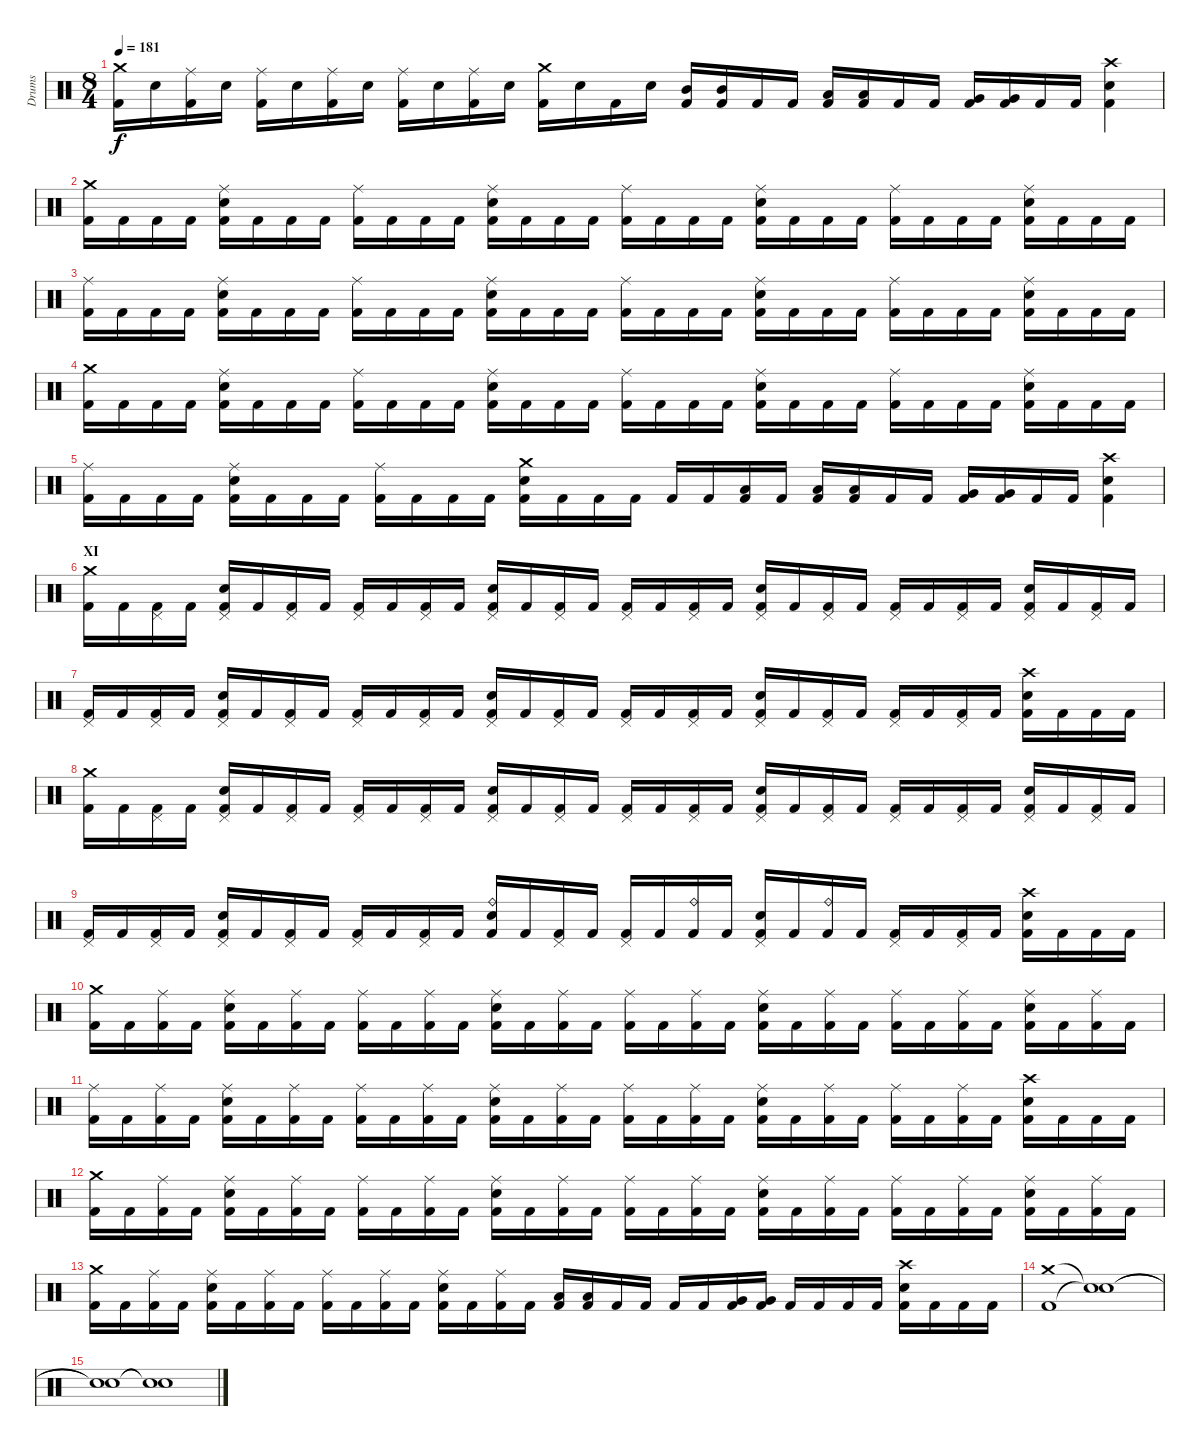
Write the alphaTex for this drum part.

\track ("Drums" "Drums") {instrument percussion}
\staff {score}
\articulation defaults
\ts (8 4)
\tempo 181
\clef neutral
\ks c
("Crash medium (hit)" "Kick (hit) 2").16{dy f} "Electric Snare (hit)".16 ("Ride (middle)" "Kick (hit) 2").16 "Electric Snare (hit)".16 ("Ride (middle)" "Kick (hit) 2").16 "Electric Snare (hit)".16 ("Ride (middle)" "Kick (hit) 2").16 "Electric Snare (hit)".16 ("Ride (middle)" "Kick (hit) 2").16 "Electric Snare (hit)".16 ("Ride (middle)" "Kick (hit) 2").16 "Electric Snare (hit)".16 ("Crash medium (hit)" "Kick (hit) 2").16 "Electric Snare (hit)".16 "Kick (hit) 2".16 "Electric Snare (hit)".16 ("Mid Tom (hit)" "Kick (hit) 2").16 ("Mid Tom (hit)" "Kick (hit) 2").16 "Kick (hit) 2".16 "Kick (hit) 2".16 ("Low Tom (hit)" "Kick (hit) 2").16 ("Low Tom (hit)" "Kick (hit) 2").16 "Kick (hit) 2".16 "Kick (hit) 2".16 ("Very Low Tom (hit)" "Kick (hit) 2").16 ("Very Low Tom (hit)" "Kick (hit) 2").16 "Kick (hit) 2".16 "Kick (hit) 2".16 ("Crash high (hit)" "Electric Snare (hit)" "Kick (hit) 2").4 |
("Crash medium (hit)" "Kick (hit) 2").16 "Kick (hit) 2".16 "Kick (hit) 2".16 "Kick (hit) 2".16 ("Ride (middle)" "Electric Snare (hit)" "Kick (hit) 2").16 "Kick (hit) 2".16 "Kick (hit) 2".16 "Kick (hit) 2".16 ("Ride (middle)" "Kick (hit) 2").16 "Kick (hit) 2".16 "Kick (hit) 2".16 "Kick (hit) 2".16 ("Ride (middle)" "Electric Snare (hit)" "Kick (hit) 2").16 "Kick (hit) 2".16 "Kick (hit) 2".16 "Kick (hit) 2".16 ("Ride (middle)" "Kick (hit) 2").16 "Kick (hit) 2".16 "Kick (hit) 2".16 "Kick (hit) 2".16 ("Ride (middle)" "Electric Snare (hit)" "Kick (hit) 2").16 "Kick (hit) 2".16 "Kick (hit) 2".16 "Kick (hit) 2".16 ("Ride (middle)" "Kick (hit) 2").16 "Kick (hit) 2".16 "Kick (hit) 2".16 "Kick (hit) 2".16 ("Ride (middle)" "Electric Snare (hit)" "Kick (hit) 2").16 "Kick (hit) 2".16 "Kick (hit) 2".16 "Kick (hit) 2".16 |
("Ride (middle)" "Kick (hit) 2").16 "Kick (hit) 2".16 "Kick (hit) 2".16 "Kick (hit) 2".16 ("Ride (middle)" "Electric Snare (hit)" "Kick (hit) 2").16 "Kick (hit) 2".16 "Kick (hit) 2".16 "Kick (hit) 2".16 ("Ride (middle)" "Kick (hit) 2").16 "Kick (hit) 2".16 "Kick (hit) 2".16 "Kick (hit) 2".16 ("Ride (middle)" "Electric Snare (hit)" "Kick (hit) 2").16 "Kick (hit) 2".16 "Kick (hit) 2".16 "Kick (hit) 2".16 ("Ride (middle)" "Kick (hit) 2").16 "Kick (hit) 2".16 "Kick (hit) 2".16 "Kick (hit) 2".16 ("Ride (middle)" "Electric Snare (hit)" "Kick (hit) 2").16 "Kick (hit) 2".16 "Kick (hit) 2".16 "Kick (hit) 2".16 ("Ride (middle)" "Kick (hit) 2").16 "Kick (hit) 2".16 "Kick (hit) 2".16 "Kick (hit) 2".16 ("Ride (middle)" "Electric Snare (hit)" "Kick (hit) 2").16 "Kick (hit) 2".16 "Kick (hit) 2".16 "Kick (hit) 2".16 |
("Crash medium (hit)" "Kick (hit) 2").16 "Kick (hit) 2".16 "Kick (hit) 2".16 "Kick (hit) 2".16 ("Ride (middle)" "Electric Snare (hit)" "Kick (hit) 2").16 "Kick (hit) 2".16 "Kick (hit) 2".16 "Kick (hit) 2".16 ("Ride (middle)" "Kick (hit) 2").16 "Kick (hit) 2".16 "Kick (hit) 2".16 "Kick (hit) 2".16 ("Ride (middle)" "Electric Snare (hit)" "Kick (hit) 2").16 "Kick (hit) 2".16 "Kick (hit) 2".16 "Kick (hit) 2".16 ("Ride (middle)" "Kick (hit) 2").16 "Kick (hit) 2".16 "Kick (hit) 2".16 "Kick (hit) 2".16 ("Ride (middle)" "Electric Snare (hit)" "Kick (hit) 2").16 "Kick (hit) 2".16 "Kick (hit) 2".16 "Kick (hit) 2".16 ("Ride (middle)" "Kick (hit) 2").16 "Kick (hit) 2".16 "Kick (hit) 2".16 "Kick (hit) 2".16 ("Ride (middle)" "Electric Snare (hit)" "Kick (hit) 2").16 "Kick (hit) 2".16 "Kick (hit) 2".16 "Kick (hit) 2".16 |
("Ride (middle)" "Kick (hit) 2").16 "Kick (hit) 2".16 "Kick (hit) 2".16 "Kick (hit) 2".16 ("Ride (middle)" "Electric Snare (hit)" "Kick (hit) 2").16 "Kick (hit) 2".16 "Kick (hit) 2".16 "Kick (hit) 2".16 ("Ride (middle)" "Kick (hit) 2").16 "Kick (hit) 2".16 "Kick (hit) 2".16 "Kick (hit) 2".16 ("Crash medium (hit)" "Electric Snare (hit)" "Kick (hit) 2").16 "Kick (hit) 2".16 "Kick (hit) 2".16 "Kick (hit) 2".16 "Kick (hit) 2".16 "Kick (hit) 2".16 ("Low Tom (hit)" "Kick (hit) 2").16 "Kick (hit) 2".16 ("Low Tom (hit)" "Kick (hit) 2").16 ("Low Tom (hit)" "Kick (hit) 2").16 "Kick (hit) 2".16 "Kick (hit) 2".16 ("Very Low Tom (hit)" "Kick (hit) 2").16 ("Very Low Tom (hit)" "Kick (hit) 2").16 "Kick (hit) 2".16 "Kick (hit) 2".16 ("Crash high (hit)" "Electric Snare (hit)" "Kick (hit) 2").4 |
\section ("" "XI")
("Crash medium (hit)" "Kick (hit) 2").16 "Kick (hit) 2".16 ("Pedal Hi-Hat (hit)" "Kick (hit) 2").16 "Kick (hit) 2".16 ("Pedal Hi-Hat (hit)" "Electric Snare (hit)" "Kick (hit) 2").16 "Kick (hit) 2".16 ("Pedal Hi-Hat (hit)" "Kick (hit) 2").16 "Kick (hit) 2".16 ("Pedal Hi-Hat (hit)" "Kick (hit) 2").16 "Kick (hit) 2".16 ("Pedal Hi-Hat (hit)" "Kick (hit) 2").16 "Kick (hit) 2".16 ("Pedal Hi-Hat (hit)" "Electric Snare (hit)" "Kick (hit) 2").16 "Kick (hit) 2".16 ("Pedal Hi-Hat (hit)" "Kick (hit) 2").16 "Kick (hit) 2".16 ("Pedal Hi-Hat (hit)" "Kick (hit) 2").16 "Kick (hit) 2".16 ("Pedal Hi-Hat (hit)" "Kick (hit) 2").16 "Kick (hit) 2".16 ("Pedal Hi-Hat (hit)" "Electric Snare (hit)" "Kick (hit) 2").16 "Kick (hit) 2".16 ("Pedal Hi-Hat (hit)" "Kick (hit) 2").16 "Kick (hit) 2".16 ("Pedal Hi-Hat (hit)" "Kick (hit) 2").16 "Kick (hit) 2".16 ("Pedal Hi-Hat (hit)" "Kick (hit) 2").16 "Kick (hit) 2".16 ("Pedal Hi-Hat (hit)" "Electric Snare (hit)" "Kick (hit) 2").16 "Kick (hit) 2".16 ("Pedal Hi-Hat (hit)" "Kick (hit) 2").16 "Kick (hit) 2".16 |
("Pedal Hi-Hat (hit)" "Kick (hit) 2").16 "Kick (hit) 2".16 ("Pedal Hi-Hat (hit)" "Kick (hit) 2").16 "Kick (hit) 2".16 ("Pedal Hi-Hat (hit)" "Electric Snare (hit)" "Kick (hit) 2").16 "Kick (hit) 2".16 ("Pedal Hi-Hat (hit)" "Kick (hit) 2").16 "Kick (hit) 2".16 ("Pedal Hi-Hat (hit)" "Kick (hit) 2").16 "Kick (hit) 2".16 ("Pedal Hi-Hat (hit)" "Kick (hit) 2").16 "Kick (hit) 2".16 ("Pedal Hi-Hat (hit)" "Electric Snare (hit)" "Kick (hit) 2").16 "Kick (hit) 2".16 ("Pedal Hi-Hat (hit)" "Kick (hit) 2").16 "Kick (hit) 2".16 ("Pedal Hi-Hat (hit)" "Kick (hit) 2").16 "Kick (hit) 2".16 ("Pedal Hi-Hat (hit)" "Kick (hit) 2").16 "Kick (hit) 2".16 ("Pedal Hi-Hat (hit)" "Electric Snare (hit)" "Kick (hit) 2").16 "Kick (hit) 2".16 ("Pedal Hi-Hat (hit)" "Kick (hit) 2").16 "Kick (hit) 2".16 ("Pedal Hi-Hat (hit)" "Kick (hit) 2").16 "Kick (hit) 2".16 ("Pedal Hi-Hat (hit)" "Kick (hit) 2").16 "Kick (hit) 2".16 ("Crash high (hit)" "Electric Snare (hit)" "Kick (hit) 2").16 "Kick (hit) 2".16 "Kick (hit) 2".16 "Kick (hit) 2".16 |
("Crash medium (hit)" "Kick (hit) 2").16 "Kick (hit) 2".16 ("Pedal Hi-Hat (hit)" "Kick (hit) 2").16 "Kick (hit) 2".16 ("Pedal Hi-Hat (hit)" "Electric Snare (hit)" "Kick (hit) 2").16 "Kick (hit) 2".16 ("Pedal Hi-Hat (hit)" "Kick (hit) 2").16 "Kick (hit) 2".16 ("Pedal Hi-Hat (hit)" "Kick (hit) 2").16 "Kick (hit) 2".16 ("Pedal Hi-Hat (hit)" "Kick (hit) 2").16 "Kick (hit) 2".16 ("Pedal Hi-Hat (hit)" "Electric Snare (hit)" "Kick (hit) 2").16 "Kick (hit) 2".16 ("Pedal Hi-Hat (hit)" "Kick (hit) 2").16 "Kick (hit) 2".16 ("Pedal Hi-Hat (hit)" "Kick (hit) 2").16 "Kick (hit) 2".16 ("Pedal Hi-Hat (hit)" "Kick (hit) 2").16 "Kick (hit) 2".16 ("Pedal Hi-Hat (hit)" "Electric Snare (hit)" "Kick (hit) 2").16 "Kick (hit) 2".16 ("Pedal Hi-Hat (hit)" "Kick (hit) 2").16 "Kick (hit) 2".16 ("Pedal Hi-Hat (hit)" "Kick (hit) 2").16 "Kick (hit) 2".16 ("Pedal Hi-Hat (hit)" "Kick (hit) 2").16 "Kick (hit) 2".16 ("Pedal Hi-Hat (hit)" "Electric Snare (hit)" "Kick (hit) 2").16 "Kick (hit) 2".16 ("Pedal Hi-Hat (hit)" "Kick (hit) 2").16 "Kick (hit) 2".16 |
("Pedal Hi-Hat (hit)" "Kick (hit) 2").16 "Kick (hit) 2".16 ("Pedal Hi-Hat (hit)" "Kick (hit) 2").16 "Kick (hit) 2".16 ("Pedal Hi-Hat (hit)" "Electric Snare (hit)" "Kick (hit) 2").16 "Kick (hit) 2".16 ("Pedal Hi-Hat (hit)" "Kick (hit) 2").16 "Kick (hit) 2".16 ("Pedal Hi-Hat (hit)" "Kick (hit) 2").16 "Kick (hit) 2".16 ("Pedal Hi-Hat (hit)" "Kick (hit) 2").16 "Kick (hit) 2".16 ("Ride (bell)" "Electric Snare (hit)" "Kick (hit) 2").16 "Kick (hit) 2".16 ("Pedal Hi-Hat (hit)" "Kick (hit) 2").16 "Kick (hit) 2".16 ("Pedal Hi-Hat (hit)" "Kick (hit) 2").16 "Kick (hit) 2".16 ("Ride (bell)" "Kick (hit) 2").16 "Kick (hit) 2".16 ("Pedal Hi-Hat (hit)" "Electric Snare (hit)" "Kick (hit) 2").16 "Kick (hit) 2".16 ("Ride (bell)" "Kick (hit) 2").16 "Kick (hit) 2".16 ("Pedal Hi-Hat (hit)" "Kick (hit) 2").16 "Kick (hit) 2".16 ("Pedal Hi-Hat (hit)" "Kick (hit) 2").16 "Kick (hit) 2".16 ("Crash high (hit)" "Electric Snare (hit)" "Kick (hit) 2").16 "Kick (hit) 2".16 "Kick (hit) 2".16 "Kick (hit) 2".16 |
("Crash medium (hit)" "Kick (hit) 2").16 "Kick (hit) 2".16 ("Ride (middle)" "Kick (hit) 2").16 "Kick (hit) 2".16 ("Ride (middle)" "Electric Snare (hit)" "Kick (hit) 2").16 "Kick (hit) 2".16 ("Ride (middle)" "Kick (hit) 2").16 "Kick (hit) 2".16 ("Ride (middle)" "Kick (hit) 2").16 "Kick (hit) 2".16 ("Ride (middle)" "Kick (hit) 2").16 "Kick (hit) 2".16 ("Ride (middle)" "Electric Snare (hit)" "Kick (hit) 2").16 "Kick (hit) 2".16 ("Ride (middle)" "Kick (hit) 2").16 "Kick (hit) 2".16 ("Ride (middle)" "Kick (hit) 2").16 "Kick (hit) 2".16 ("Ride (middle)" "Kick (hit) 2").16 "Kick (hit) 2".16 ("Ride (middle)" "Electric Snare (hit)" "Kick (hit) 2").16 "Kick (hit) 2".16 ("Ride (middle)" "Kick (hit) 2").16 "Kick (hit) 2".16 ("Ride (middle)" "Kick (hit) 2").16 "Kick (hit) 2".16 ("Ride (middle)" "Kick (hit) 2").16 "Kick (hit) 2".16 ("Ride (middle)" "Electric Snare (hit)" "Kick (hit) 2").16 "Kick (hit) 2".16 ("Ride (middle)" "Kick (hit) 2").16 "Kick (hit) 2".16 |
("Ride (middle)" "Kick (hit) 2").16 "Kick (hit) 2".16 ("Ride (middle)" "Kick (hit) 2").16 "Kick (hit) 2".16 ("Ride (middle)" "Electric Snare (hit)" "Kick (hit) 2").16 "Kick (hit) 2".16 ("Ride (middle)" "Kick (hit) 2").16 "Kick (hit) 2".16 ("Ride (middle)" "Kick (hit) 2").16 "Kick (hit) 2".16 ("Ride (middle)" "Kick (hit) 2").16 "Kick (hit) 2".16 ("Ride (middle)" "Electric Snare (hit)" "Kick (hit) 2").16 "Kick (hit) 2".16 ("Ride (middle)" "Kick (hit) 2").16 "Kick (hit) 2".16 ("Ride (middle)" "Kick (hit) 2").16 "Kick (hit) 2".16 ("Ride (middle)" "Kick (hit) 2").16 "Kick (hit) 2".16 ("Ride (middle)" "Electric Snare (hit)" "Kick (hit) 2").16 "Kick (hit) 2".16 ("Ride (middle)" "Kick (hit) 2").16 "Kick (hit) 2".16 ("Ride (middle)" "Kick (hit) 2").16 "Kick (hit) 2".16 ("Ride (middle)" "Kick (hit) 2").16 "Kick (hit) 2".16 ("Crash high (hit)" "Electric Snare (hit)" "Kick (hit) 2").16 "Kick (hit) 2".16 "Kick (hit) 2".16 "Kick (hit) 2".16 |
("Crash medium (hit)" "Kick (hit) 2").16 "Kick (hit) 2".16 ("Ride (middle)" "Kick (hit) 2").16 "Kick (hit) 2".16 ("Ride (middle)" "Electric Snare (hit)" "Kick (hit) 2").16 "Kick (hit) 2".16 ("Ride (middle)" "Kick (hit) 2").16 "Kick (hit) 2".16 ("Ride (middle)" "Kick (hit) 2").16 "Kick (hit) 2".16 ("Ride (middle)" "Kick (hit) 2").16 "Kick (hit) 2".16 ("Ride (middle)" "Electric Snare (hit)" "Kick (hit) 2").16 "Kick (hit) 2".16 ("Ride (middle)" "Kick (hit) 2").16 "Kick (hit) 2".16 ("Ride (middle)" "Kick (hit) 2").16 "Kick (hit) 2".16 ("Ride (middle)" "Kick (hit) 2").16 "Kick (hit) 2".16 ("Ride (middle)" "Electric Snare (hit)" "Kick (hit) 2").16 "Kick (hit) 2".16 ("Ride (middle)" "Kick (hit) 2").16 "Kick (hit) 2".16 ("Ride (middle)" "Kick (hit) 2").16 "Kick (hit) 2".16 ("Ride (middle)" "Kick (hit) 2").16 "Kick (hit) 2".16 ("Ride (middle)" "Electric Snare (hit)" "Kick (hit) 2").16 "Kick (hit) 2".16 ("Ride (middle)" "Kick (hit) 2").16 "Kick (hit) 2".16 |
("Crash medium (hit)" "Kick (hit) 2").16 "Kick (hit) 2".16 ("Ride (middle)" "Kick (hit) 2").16 "Kick (hit) 2".16 ("Ride (middle)" "Electric Snare (hit)" "Kick (hit) 2").16 "Kick (hit) 2".16 ("Ride (middle)" "Kick (hit) 2").16 "Kick (hit) 2".16 ("Ride (middle)" "Kick (hit) 2").16 "Kick (hit) 2".16 ("Ride (middle)" "Kick (hit) 2").16 "Kick (hit) 2".16 ("Ride (middle)" "Electric Snare (hit)" "Kick (hit) 2").16 "Kick (hit) 2".16 ("Ride (middle)" "Kick (hit) 2").16 "Kick (hit) 2".16 ("Low Tom (hit)" "Kick (hit) 2").16 ("Low Tom (hit)" "Kick (hit) 2").16 "Kick (hit) 2".16 "Kick (hit) 2".16 "Kick (hit) 2".16 "Kick (hit) 2".16 ("Very Low Tom (hit)" "Kick (hit) 2").16 ("Very Low Tom (hit)" "Kick (hit) 2").16 "Kick (hit) 2".16 "Kick (hit) 2".16 "Kick (hit) 2".16 "Kick (hit) 2".16 ("Crash high (hit)" "Electric Snare (hit)" "Kick (hit) 2").16 "Kick (hit) 2".16 "Kick (hit) 2".16 "Kick (hit) 2".16 |
("Crash medium (hit)" "Kick (hit) 2").1 ("Snare (hit)"{t} "Snare (hit)"{t}).1 |
("Snare (hit)"{t} "Snare (hit)"{t}).1 ("Snare (hit)"{t} "Snare (hit)"{t}).1
